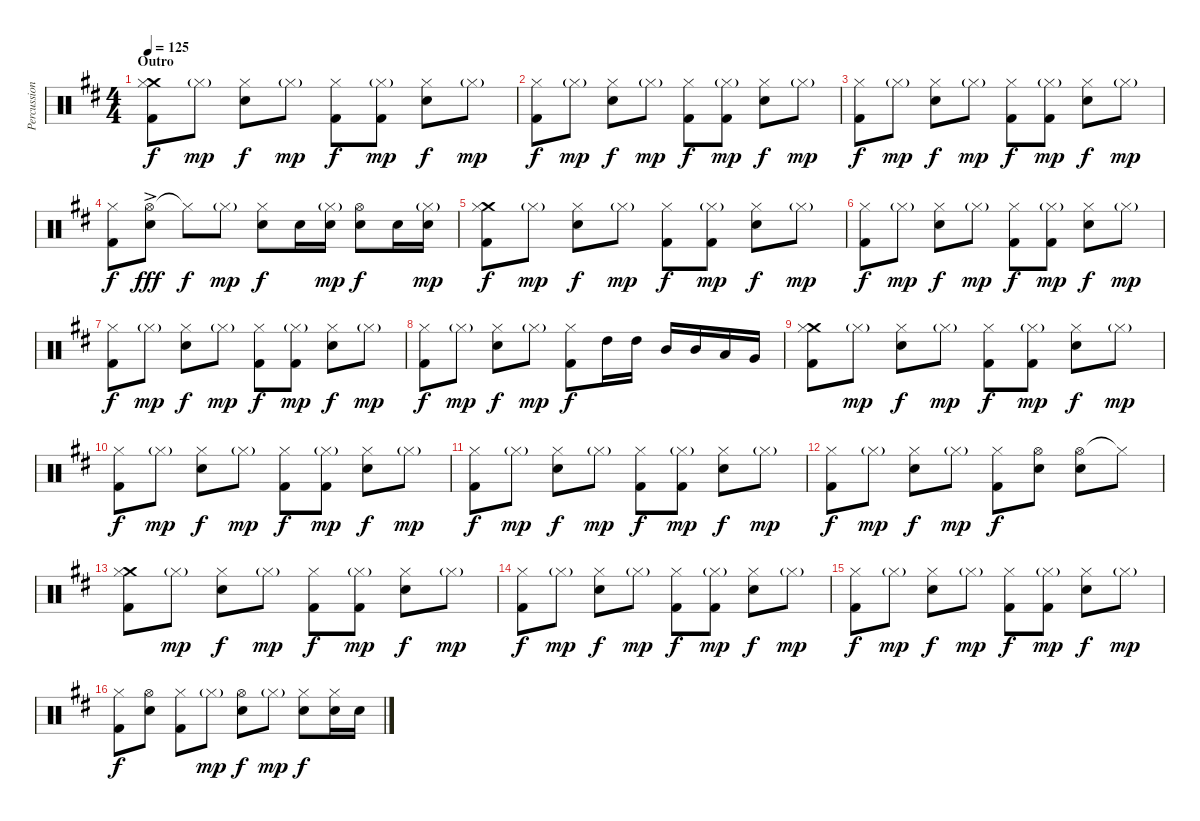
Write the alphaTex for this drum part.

\track ("Percussion" "Percussion") {instrument percussion}
\staff {score}
\articulation defaults
\ts (4 4)
\section ("" "Outro")
\tempo 125
\clef neutral
\ks bminor
("Crash medium (hit)" "Hi-Hat (closed)" "Kick (hit) 2").8{dy f} "Hi-Hat (closed)"{g}.8{dy mp} ("Hi-Hat (closed)" "Snare (hit) 2").8{dy f} "Hi-Hat (closed)"{g}.8{dy mp} ("Hi-Hat (closed)" "Kick (hit) 2").8{dy f} ("Hi-Hat (closed)"{g} "Kick (hit) 2").8{dy mp} ("Hi-Hat (closed)" "Snare (hit) 2").8{dy f} "Hi-Hat (closed)"{g}.8{dy mp} |
("Hi-Hat (closed)" "Kick (hit) 2").8{dy f} "Hi-Hat (closed)"{g}.8{dy mp} ("Hi-Hat (closed)" "Snare (hit) 2").8{dy f} "Hi-Hat (closed)"{g}.8{dy mp} ("Hi-Hat (closed)" "Kick (hit) 2").8{dy f} ("Hi-Hat (closed)"{g} "Kick (hit) 2").8{dy mp} ("Hi-Hat (closed)" "Snare (hit) 2").8{dy f} "Hi-Hat (closed)"{g}.8{dy mp} |
("Hi-Hat (closed)" "Kick (hit) 2").8{dy f} "Hi-Hat (closed)"{g}.8{dy mp} ("Hi-Hat (closed)" "Snare (hit) 2").8{dy f} "Hi-Hat (closed)"{g}.8{dy mp} ("Hi-Hat (closed)" "Kick (hit) 2").8{dy f} ("Hi-Hat (closed)"{g} "Kick (hit) 2").8{dy mp} ("Hi-Hat (closed)" "Snare (hit) 2").8{dy f} "Hi-Hat (closed)"{g}.8{dy mp} |
("Hi-Hat (closed)" "Kick (hit) 2").8{dy f} ("Hi-Hat (open)" "Snare (hit) 2"{ac}).8{dy fff} "Hi-Hat (closed)"{t}.8{dy f} "Hi-Hat (closed)"{g}.8{dy mp} ("Hi-Hat (closed)" "Snare (hit) 2").8{dy f} "Snare (hit) 2".16 ("Hi-Hat (closed)"{g} "Snare (hit) 2").16{dy mp} ("Hi-Hat (open)" "Snare (hit) 2").8{dy f} "Snare (hit) 2".16 ("Hi-Hat (closed)"{g} "Snare (hit) 2").16{dy mp} |
("Crash medium (hit)" "Hi-Hat (closed)" "Kick (hit) 2").8{dy f} "Hi-Hat (closed)"{g}.8{dy mp} ("Hi-Hat (closed)" "Snare (hit) 2").8{dy f} "Hi-Hat (closed)"{g}.8{dy mp} ("Hi-Hat (closed)" "Kick (hit) 2").8{dy f} ("Hi-Hat (closed)"{g} "Kick (hit) 2").8{dy mp} ("Hi-Hat (closed)" "Snare (hit) 2").8{dy f} "Hi-Hat (closed)"{g}.8{dy mp} |
("Hi-Hat (closed)" "Kick (hit) 2").8{dy f} "Hi-Hat (closed)"{g}.8{dy mp} ("Hi-Hat (closed)" "Snare (hit) 2").8{dy f} "Hi-Hat (closed)"{g}.8{dy mp} ("Hi-Hat (closed)" "Kick (hit) 2").8{dy f} ("Hi-Hat (closed)"{g} "Kick (hit) 2").8{dy mp} ("Hi-Hat (closed)" "Snare (hit) 2").8{dy f} "Hi-Hat (closed)"{g}.8{dy mp} |
("Hi-Hat (closed)" "Kick (hit) 2").8{dy f} "Hi-Hat (closed)"{g}.8{dy mp} ("Hi-Hat (closed)" "Snare (hit) 2").8{dy f} "Hi-Hat (closed)"{g}.8{dy mp} ("Hi-Hat (closed)" "Kick (hit) 2").8{dy f} ("Hi-Hat (closed)"{g} "Kick (hit) 2").8{dy mp} ("Hi-Hat (closed)" "Snare (hit) 2").8{dy f} "Hi-Hat (closed)"{g}.8{dy mp} |
("Hi-Hat (closed)" "Kick (hit) 2").8{dy f} "Hi-Hat (closed)"{g}.8{dy mp} ("Hi-Hat (closed)" "Snare (hit) 2").8{dy f} "Hi-Hat (closed)"{g}.8{dy mp} ("Hi-Hat (closed)" "Kick (hit) 2").8{dy f} "High Tom (hit)".16 "High Tom (hit)".16 "Mid Tom (hit)".16 "Mid Tom (hit)".16 "Low Tom (hit)".16 "Very Low Tom (hit)".16 |
("Crash medium (hit)" "Hi-Hat (closed)" "Kick (hit) 2").8 "Hi-Hat (closed)"{g}.8{dy mp} ("Hi-Hat (closed)" "Snare (hit) 2").8{dy f} "Hi-Hat (closed)"{g}.8{dy mp} ("Hi-Hat (closed)" "Kick (hit) 2").8{dy f} ("Hi-Hat (closed)"{g} "Kick (hit) 2").8{dy mp} ("Hi-Hat (closed)" "Snare (hit) 2").8{dy f} "Hi-Hat (closed)"{g}.8{dy mp} |
("Hi-Hat (closed)" "Kick (hit) 2").8{dy f} "Hi-Hat (closed)"{g}.8{dy mp} ("Hi-Hat (closed)" "Snare (hit) 2").8{dy f} "Hi-Hat (closed)"{g}.8{dy mp} ("Hi-Hat (closed)" "Kick (hit) 2").8{dy f} ("Hi-Hat (closed)"{g} "Kick (hit) 2").8{dy mp} ("Hi-Hat (closed)" "Snare (hit) 2").8{dy f} "Hi-Hat (closed)"{g}.8{dy mp} |
("Hi-Hat (closed)" "Kick (hit) 2").8{dy f} "Hi-Hat (closed)"{g}.8{dy mp} ("Hi-Hat (closed)" "Snare (hit) 2").8{dy f} "Hi-Hat (closed)"{g}.8{dy mp} ("Hi-Hat (closed)" "Kick (hit) 2").8{dy f} ("Hi-Hat (closed)"{g} "Kick (hit) 2").8{dy mp} ("Hi-Hat (closed)" "Snare (hit) 2").8{dy f} "Hi-Hat (closed)"{g}.8{dy mp} |
("Hi-Hat (closed)" "Kick (hit) 2").8{dy f} "Hi-Hat (closed)"{g}.8{dy mp} ("Hi-Hat (closed)" "Snare (hit) 2").8{dy f} "Hi-Hat (closed)"{g}.8{dy mp} ("Hi-Hat (closed)" "Kick (hit) 2").8{dy f} ("Hi-Hat (open)" "Snare (hit) 2").8 ("Hi-Hat (open)" "Snare (hit) 2").8 "Hi-Hat (closed)"{t}.8 |
("Crash medium (hit)" "Hi-Hat (closed)" "Kick (hit) 2").8 "Hi-Hat (closed)"{g}.8{dy mp} ("Hi-Hat (closed)" "Snare (hit) 2").8{dy f} "Hi-Hat (closed)"{g}.8{dy mp} ("Hi-Hat (closed)" "Kick (hit) 2").8{dy f} ("Hi-Hat (closed)"{g} "Kick (hit) 2").8{dy mp} ("Hi-Hat (closed)" "Snare (hit) 2").8{dy f} "Hi-Hat (closed)"{g}.8{dy mp} |
("Hi-Hat (closed)" "Kick (hit) 2").8{dy f} "Hi-Hat (closed)"{g}.8{dy mp} ("Hi-Hat (closed)" "Snare (hit) 2").8{dy f} "Hi-Hat (closed)"{g}.8{dy mp} ("Hi-Hat (closed)" "Kick (hit) 2").8{dy f} ("Hi-Hat (closed)"{g} "Kick (hit) 2").8{dy mp} ("Hi-Hat (closed)" "Snare (hit) 2").8{dy f} "Hi-Hat (closed)"{g}.8{dy mp} |
("Hi-Hat (closed)" "Kick (hit) 2").8{dy f} "Hi-Hat (closed)"{g}.8{dy mp} ("Hi-Hat (closed)" "Snare (hit) 2").8{dy f} "Hi-Hat (closed)"{g}.8{dy mp} ("Hi-Hat (closed)" "Kick (hit) 2").8{dy f} ("Hi-Hat (closed)"{g} "Kick (hit) 2").8{dy mp} ("Hi-Hat (closed)" "Snare (hit) 2").8{dy f} "Hi-Hat (closed)"{g}.8{dy mp} |
("Hi-Hat (closed)" "Kick (hit) 2").8{dy f} ("Hi-Hat (open)" "Snare (hit) 2").8 ("Hi-Hat (closed)" "Kick (hit) 2").8 "Hi-Hat (closed)"{g}.8{dy mp} ("Hi-Hat (open)" "Snare (hit) 2").8{dy f} "Hi-Hat (closed)"{g}.8{dy mp} ("Hi-Hat (closed)" "Snare (hit) 2").8{dy f} ("Hi-Hat (closed)" "Electric Snare (hit)").16 "Electric Snare (hit)".16
